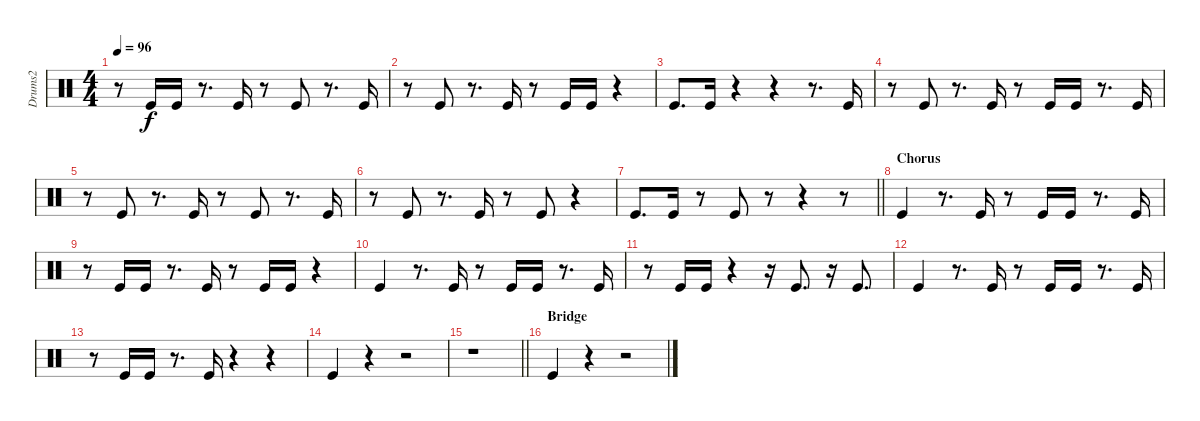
\track ("Drums2" "Drums2") {instrument percussion}
\staff {score}
\articulation defaults
\ts (4 4)
\tempo 96
\clef neutral
\ks c
r.8{dy f} "Kick (hit)".16 "Kick (hit)".16 r.8{d} "Kick (hit)".16 r.8 "Kick (hit)".8 r.8{d} "Kick (hit)".16 |
r.8 "Kick (hit)".8 r.8{d} "Kick (hit)".16 r.8 "Kick (hit)".16 "Kick (hit)".16 r.4 |
"Kick (hit)".8{d} "Kick (hit)".16 r.4 r.4 r.8{d} "Kick (hit)".16 |
r.8 "Kick (hit)".8 r.8{d} "Kick (hit)".16 r.8 "Kick (hit)".16 "Kick (hit)".16 r.8{d} "Kick (hit)".16 |
r.8 "Kick (hit)".8 r.8{d} "Kick (hit)".16 r.8 "Kick (hit)".8 r.8{d} "Kick (hit)".16 |
r.8 "Kick (hit)".8 r.8{d} "Kick (hit)".16 r.8 "Kick (hit)".8 r.4 |
\barLineRight lightlight "Kick (hit)".8{d} "Kick (hit)".16
r.8 "Kick (hit)".8 r.8 r.4 r.8 |
\section ("" "Chorus")
"Kick (hit)".4 r.8{d} "Kick (hit)".16 r.8 "Kick (hit)".16 "Kick (hit)".16 r.8{d} "Kick (hit)".16 |
r.8 "Kick (hit)".16 "Kick (hit)".16 r.8{d} "Kick (hit)".16 r.8 "Kick (hit)".16 "Kick (hit)".16 r.4 |
"Kick (hit)".4 r.8{d} "Kick (hit)".16 r.8 "Kick (hit)".16 "Kick (hit)".16 r.8{d} "Kick (hit)".16 |
r.8 "Kick (hit)".16 "Kick (hit)".16 r.4 r.16 "Kick (hit)".8{d} r.16 "Kick (hit)".8{d} |
"Kick (hit)".4 r.8{d} "Kick (hit)".16 r.8 "Kick (hit)".16 "Kick (hit)".16 r.8{d} "Kick (hit)".16 |
r.8 "Kick (hit)".16 "Kick (hit)".16 r.8{d} "Kick (hit)".16 r.4 r.4 |
"Kick (hit)".4 r.4 r.2 |
\barLineRight lightlight
r.1 |
\section ("" "Bridge")
"Kick (hit)".4 r.4 r.2
